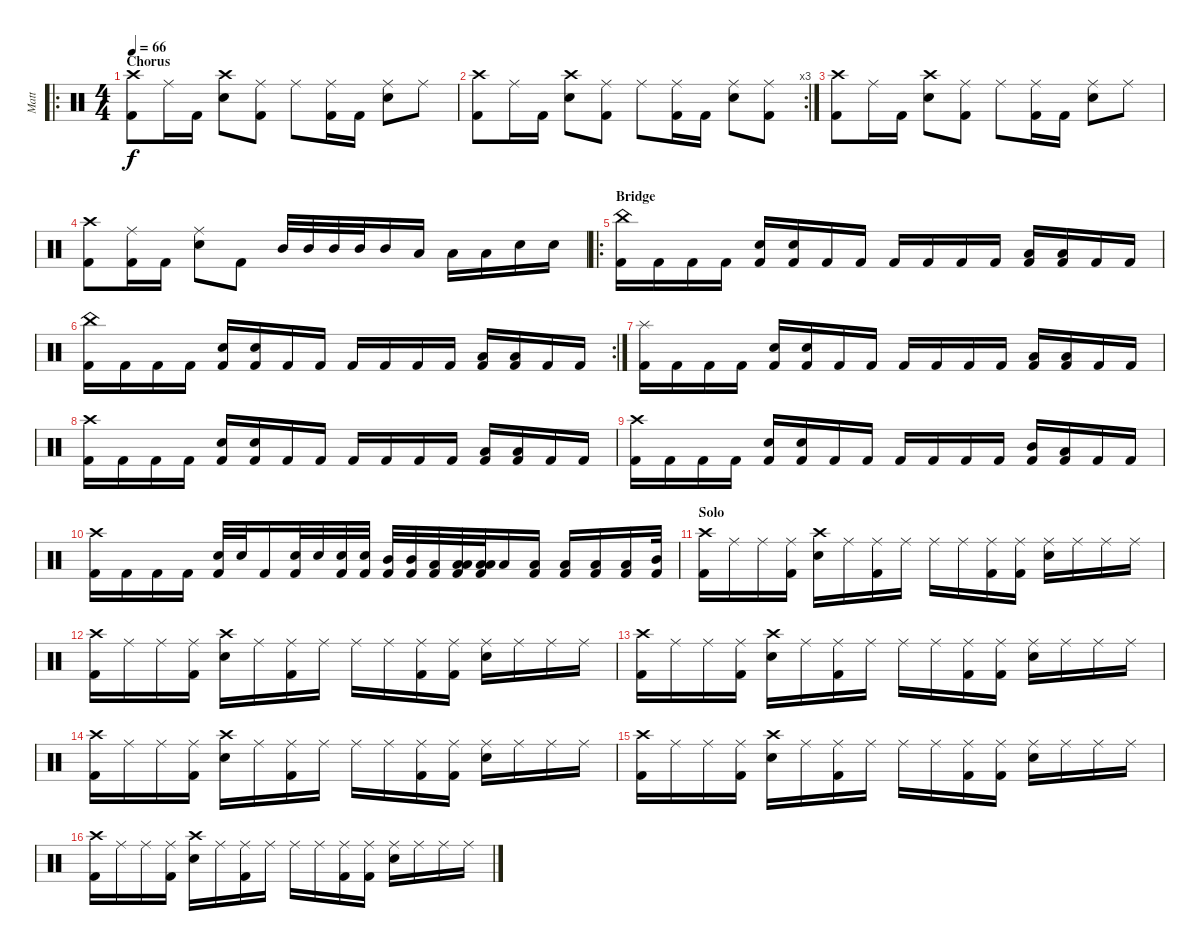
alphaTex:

\track ("Matt" "Matt") {instrument percussion}
\staff {score}
\articulation defaults
\ro
\ts (4 4)
\section ("" "Chorus")
\tempo 66
\clef neutral
\ks c
("Crash high (hit)" "Kick (hit) 2").8{dy f} "Ride (middle)".16 "Kick (hit) 2".16 ("Crash high (hit)" "Snare (hit) 2").8 ("Ride (middle)" "Kick (hit) 2").8 "Ride (middle)".8 ("Ride (middle)" "Kick (hit) 2").16 "Kick (hit) 2".16 ("Ride (middle)" "Snare (hit) 2").8 "Ride (middle)".8 |
\rc 3
("Crash high (hit)" "Kick (hit) 2").8 "Ride (middle)".16 "Kick (hit) 2".16 ("Crash high (hit)" "Snare (hit) 2").8 ("Ride (middle)" "Kick (hit) 2").8 "Ride (middle)".8 ("Ride (middle)" "Kick (hit) 2").16 "Kick (hit) 2".16 ("Ride (middle)" "Snare (hit) 2").8 ("Ride (middle)" "Kick (hit) 2").8 |
("Crash high (hit)" "Kick (hit) 2").8 "Ride (middle)".16 "Kick (hit) 2".16 ("Crash high (hit)" "Snare (hit) 2").8 ("Ride (middle)" "Kick (hit) 2").8 "Ride (middle)".8 ("Ride (middle)" "Kick (hit) 2").16 "Kick (hit) 2".16 ("Ride (middle)" "Snare (hit) 2").8 "Ride (middle)".8 |
("Crash high (hit)" "Kick (hit) 2").8 ("Ride (middle)" "Kick (hit) 2").16 "Kick (hit) 2".16 ("Ride (middle)" "Snare (hit) 2").8 "Kick (hit) 2".8 "Mid Tom (hit)".32 "Mid Tom (hit)".32 "Mid Tom (hit)".32 "Mid Tom (hit)".32 "Mid Tom (hit)".16 "Low Tom (hit)".16 "Low Tom (hit)".16 "Low Tom (hit)".16 "Snare (hit) 2".16 "Snare (hit) 2".16 |
\ro
\section ("" "Bridge")
("China (hit)" "Kick (hit) 2").16 "Kick (hit) 2".16 "Kick (hit) 2".16 "Kick (hit) 2".16 ("Snare (hit) 2" "Kick (hit) 2").16 ("Snare (hit) 2" "Kick (hit) 2").16 "Kick (hit) 2".16 "Kick (hit) 2".16 "Kick (hit) 2".16 "Kick (hit) 2".16 "Kick (hit) 2".16 "Kick (hit) 2".16 ("Low Tom (hit)" "Kick (hit) 2").16 ("Low Tom (hit)" "Kick (hit) 2").16 "Kick (hit) 2".16 "Kick (hit) 2".16 |
\rc 2
("China (hit)" "Kick (hit) 2").16 "Kick (hit) 2".16 "Kick (hit) 2".16 "Kick (hit) 2".16 ("Snare (hit) 2" "Kick (hit) 2").16 ("Snare (hit) 2" "Kick (hit) 2").16 "Kick (hit) 2".16 "Kick (hit) 2".16 "Kick (hit) 2".16 "Kick (hit) 2".16 "Kick (hit) 2".16 "Kick (hit) 2".16 ("Low Tom (hit)" "Kick (hit) 2").16 ("Low Tom (hit)" "Kick (hit) 2").16 "Kick (hit) 2".16 "Kick (hit) 2".16 |
("Splash (hit)" "Kick (hit) 2").16 "Kick (hit) 2".16 "Kick (hit) 2".16 "Kick (hit) 2".16 ("Snare (hit) 2" "Kick (hit) 2").16 ("Snare (hit) 2" "Kick (hit) 2").16 "Kick (hit) 2".16 "Kick (hit) 2".16 "Kick (hit) 2".16 "Kick (hit) 2".16 "Kick (hit) 2".16 "Kick (hit) 2".16 ("Low Tom (hit)" "Kick (hit) 2").16 ("Low Tom (hit)" "Kick (hit) 2").16 "Kick (hit) 2".16 "Kick (hit) 2".16 |
("Crash high (hit)" "Kick (hit) 2").16 "Kick (hit) 2".16 "Kick (hit) 2".16 "Kick (hit) 2".16 ("Snare (hit) 2" "Kick (hit) 2").16 ("Snare (hit) 2" "Kick (hit) 2").16 "Kick (hit) 2".16 "Kick (hit) 2".16 "Kick (hit) 2".16 "Kick (hit) 2".16 "Kick (hit) 2".16 "Kick (hit) 2".16 ("Low Tom (hit)" "Kick (hit) 2").16 ("Low Tom (hit)" "Kick (hit) 2").16 "Kick (hit) 2".16 "Kick (hit) 2".16 |
("Crash high (hit)" "Kick (hit) 2").16 "Kick (hit) 2".16 "Kick (hit) 2".16 "Kick (hit) 2".16 ("Snare (hit) 2" "Kick (hit) 2").16 ("Snare (hit) 2" "Kick (hit) 2").16 "Kick (hit) 2".16 "Kick (hit) 2".16 "Kick (hit) 2".16 "Kick (hit) 2".16 "Kick (hit) 2".16 "Kick (hit) 2".16 ("Mid Tom (hit)" "Kick (hit) 2").16 ("Low Tom (hit)" "Kick (hit) 2").16 "Kick (hit) 2".16 "Kick (hit) 2".16 |
("Crash high (hit)" "Kick (hit) 2").16 "Kick (hit) 2".16 "Kick (hit) 2".16 "Kick (hit) 2".16 ("Snare (hit) 2" "Kick (hit) 2").32 "Snare (hit) 2".32 "Kick (hit) 2".16 ("Snare (hit) 2" "Kick (hit) 2").32 "Snare (hit) 2".32 ("Snare (hit) 2" "Kick (hit) 2").32 ("Snare (hit) 2" "Kick (hit) 2").32 ("Mid Tom (hit)" "Kick (hit) 2").32 ("Mid Tom (hit)" "Kick (hit) 2").32 ("Low Tom (hit)" "Kick (hit) 2").32 ("Low Tom (hit)" "Low Tom (hit)" "Kick (hit) 2").32 ("Low Tom (hit)" "Low Tom (hit)" "Kick (hit) 2").32 "Low Tom (hit)".16 ("Low Tom (hit)" "Kick (hit) 2").16 ("Low Tom (hit)" "Kick (hit) 2").16 ("Low Tom (hit)" "Kick (hit) 2").16 ("Low Tom (hit)" "Kick (hit) 2").16 ("Mid Tom (hit)" "Kick (hit) 2").32 |
\section ("" "Solo")
("Crash high (hit)" "Kick (hit) 2").16 "Ride (middle)".16 "Ride (middle)".16 ("Ride (middle)" "Kick (hit) 2").16 ("Crash high (hit)" "Snare (hit) 2").16 "Ride (middle)".16 ("Ride (middle)" "Kick (hit) 2").16 "Ride (middle)".16 "Ride (middle)".16 "Ride (middle)".16 ("Ride (middle)" "Kick (hit) 2").16 ("Ride (middle)" "Kick (hit) 2").16 ("Ride (middle)" "Snare (hit) 2").16 "Ride (middle)".16 "Ride (middle)".16 "Ride (middle)".16 |
("Crash high (hit)" "Kick (hit) 2").16 "Ride (middle)".16 "Ride (middle)".16 ("Ride (middle)" "Kick (hit) 2").16 ("Crash high (hit)" "Snare (hit) 2").16 "Ride (middle)".16 ("Ride (middle)" "Kick (hit) 2").16 "Ride (middle)".16 "Ride (middle)".16 "Ride (middle)".16 ("Ride (middle)" "Kick (hit) 2").16 ("Ride (middle)" "Kick (hit) 2").16 ("Ride (middle)" "Snare (hit) 2").16 "Ride (middle)".16 "Ride (middle)".16 "Ride (middle)".16 |
("Crash high (hit)" "Kick (hit) 2").16 "Ride (middle)".16 "Ride (middle)".16 ("Ride (middle)" "Kick (hit) 2").16 ("Crash high (hit)" "Snare (hit) 2").16 "Ride (middle)".16 ("Ride (middle)" "Kick (hit) 2").16 "Ride (middle)".16 "Ride (middle)".16 "Ride (middle)".16 ("Ride (middle)" "Kick (hit) 2").16 ("Ride (middle)" "Kick (hit) 2").16 ("Ride (middle)" "Snare (hit) 2").16 "Ride (middle)".16 "Ride (middle)".16 "Ride (middle)".16 |
("Crash high (hit)" "Kick (hit) 2").16 "Ride (middle)".16 "Ride (middle)".16 ("Ride (middle)" "Kick (hit) 2").16 ("Crash high (hit)" "Snare (hit) 2").16 "Ride (middle)".16 ("Ride (middle)" "Kick (hit) 2").16 "Ride (middle)".16 "Ride (middle)".16 "Ride (middle)".16 ("Ride (middle)" "Kick (hit) 2").16 ("Ride (middle)" "Kick (hit) 2").16 ("Ride (middle)" "Snare (hit) 2").16 "Ride (middle)".16 "Ride (middle)".16 "Ride (middle)".16 |
("Crash high (hit)" "Kick (hit) 2").16 "Ride (middle)".16 "Ride (middle)".16 ("Ride (middle)" "Kick (hit) 2").16 ("Crash high (hit)" "Snare (hit) 2").16 "Ride (middle)".16 ("Ride (middle)" "Kick (hit) 2").16 "Ride (middle)".16 "Ride (middle)".16 "Ride (middle)".16 ("Ride (middle)" "Kick (hit) 2").16 ("Ride (middle)" "Kick (hit) 2").16 ("Ride (middle)" "Snare (hit) 2").16 "Ride (middle)".16 "Ride (middle)".16 "Ride (middle)".16 |
("Crash high (hit)" "Kick (hit) 2").16 "Ride (middle)".16 "Ride (middle)".16 ("Ride (middle)" "Kick (hit) 2").16 ("Crash high (hit)" "Snare (hit) 2").16 "Ride (middle)".16 ("Ride (middle)" "Kick (hit) 2").16 "Ride (middle)".16 "Ride (middle)".16 "Ride (middle)".16 ("Ride (middle)" "Kick (hit) 2").16 ("Ride (middle)" "Kick (hit) 2").16 ("Ride (middle)" "Snare (hit) 2").16 "Ride (middle)".16 "Ride (middle)".16 "Ride (middle)".16
